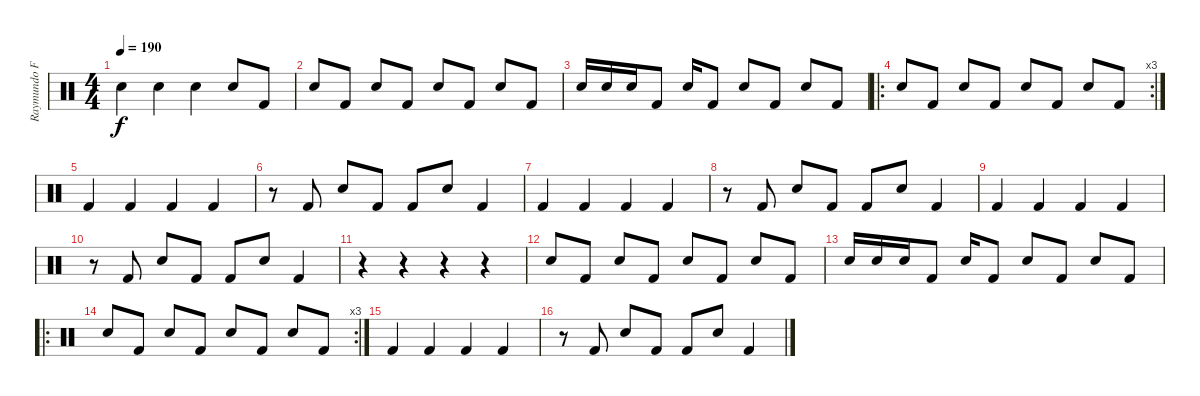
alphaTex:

\track ("Raymundo Fajaro" "Raymundo F") {instrument percussion}
\staff {score}
\articulation defaults
\ts (4 4)
\tempo 190
\clef neutral
\ks c "Electric Snare (hit)".4{dy f} "Electric Snare (hit)".4 "Electric Snare (hit)".4 "Electric Snare (hit)".8 "Kick (hit) 2".8
|
"Electric Snare (hit)".8 "Kick (hit) 2".8 "Electric Snare (hit)".8 "Kick (hit) 2".8 "Electric Snare (hit)".8 "Kick (hit) 2".8 "Electric Snare (hit)".8 "Kick (hit) 2".8 |
"Electric Snare (hit)".16 "Electric Snare (hit)".16 "Electric Snare (hit)".16 "Kick (hit) 2".8 "Electric Snare (hit)".16 "Kick (hit) 2".8 "Electric Snare (hit)".8 "Kick (hit) 2".8 "Electric Snare (hit)".8 "Kick (hit) 2".8 |
\ro
\rc 3 "Electric Snare (hit)".8 "Kick (hit) 2".8 "Electric Snare (hit)".8 "Kick (hit) 2".8 "Electric Snare (hit)".8 "Kick (hit) 2".8 "Electric Snare (hit)".8 "Kick (hit) 2".8
|
"Kick (hit) 2".4 "Kick (hit) 2".4 "Kick (hit) 2".4 "Kick (hit) 2".4 |
r.8 "Kick (hit) 2".8 "Electric Snare (hit)".8 "Kick (hit) 2".8 "Kick (hit) 2".8 "Electric Snare (hit)".8 "Kick (hit) 2".4 |
"Kick (hit) 2".4 "Kick (hit) 2".4 "Kick (hit) 2".4 "Kick (hit) 2".4 |
r.8 "Kick (hit) 2".8 "Electric Snare (hit)".8 "Kick (hit) 2".8 "Kick (hit) 2".8 "Electric Snare (hit)".8 "Kick (hit) 2".4 |
"Kick (hit) 2".4 "Kick (hit) 2".4 "Kick (hit) 2".4 "Kick (hit) 2".4 |
r.8 "Kick (hit) 2".8 "Electric Snare (hit)".8 "Kick (hit) 2".8 "Kick (hit) 2".8 "Electric Snare (hit)".8 "Kick (hit) 2".4 |
r.4 r.4 r.4 r.4 |
"Electric Snare (hit)".8 "Kick (hit) 2".8 "Electric Snare (hit)".8 "Kick (hit) 2".8 "Electric Snare (hit)".8 "Kick (hit) 2".8 "Electric Snare (hit)".8 "Kick (hit) 2".8 |
"Electric Snare (hit)".16 "Electric Snare (hit)".16 "Electric Snare (hit)".16 "Kick (hit) 2".8 "Electric Snare (hit)".16 "Kick (hit) 2".8 "Electric Snare (hit)".8 "Kick (hit) 2".8 "Electric Snare (hit)".8 "Kick (hit) 2".8 |
\ro
\rc 3 "Electric Snare (hit)".8 "Kick (hit) 2".8 "Electric Snare (hit)".8 "Kick (hit) 2".8 "Electric Snare (hit)".8 "Kick (hit) 2".8 "Electric Snare (hit)".8 "Kick (hit) 2".8
|
"Kick (hit) 2".4 "Kick (hit) 2".4 "Kick (hit) 2".4 "Kick (hit) 2".4 |
r.8 "Kick (hit) 2".8 "Electric Snare (hit)".8 "Kick (hit) 2".8 "Kick (hit) 2".8 "Electric Snare (hit)".8 "Kick (hit) 2".4
